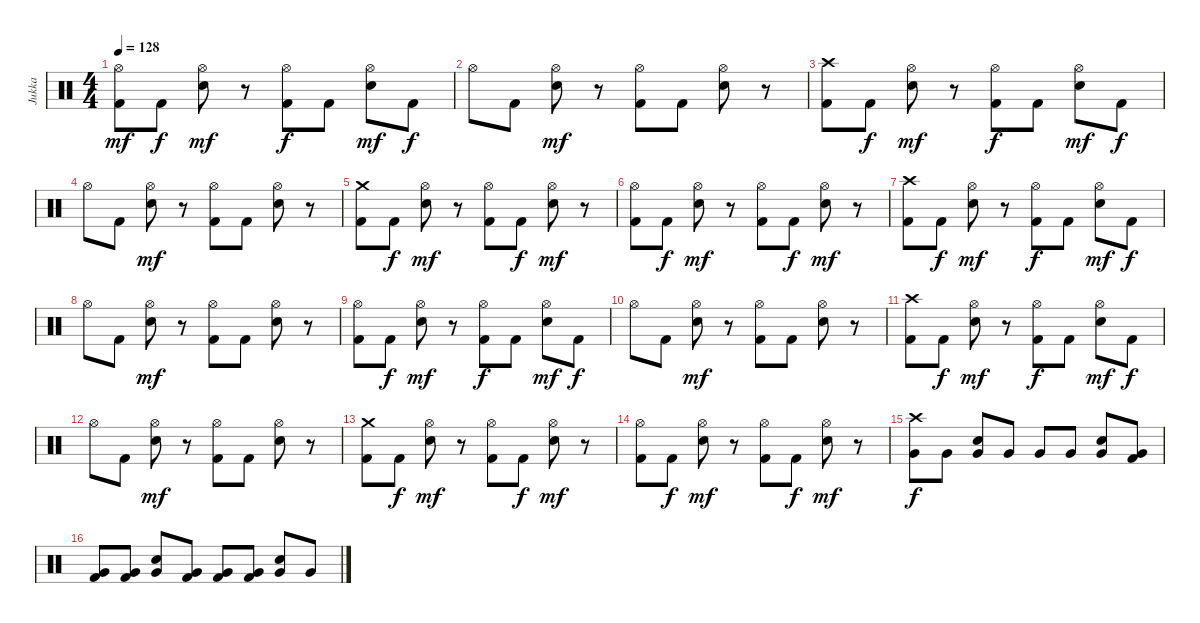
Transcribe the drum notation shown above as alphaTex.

\track ("Jukka" "Jukka") {instrument percussion}
\staff {score}
\articulation defaults
\ts (4 4)
\tempo 128
\clef neutral
\ks c
("Kick (hit) 2" "Hi-Hat (open)").8{dy mf} "Kick (hit) 2".8{dy f} ("Electric Snare (hit)" "Hi-Hat (open)").8{dy mf} r.8 ("Kick (hit) 2" "Hi-Hat (open)").8{dy f} "Kick (hit) 2".8 ("Electric Snare (hit)" "Hi-Hat (open)").8{dy mf} "Kick (hit) 2".8{dy f} |
"Hi-Hat (open)".8 "Kick (hit) 2".8 ("Electric Snare (hit)" "Hi-Hat (open)").8{dy mf} r.8 ("Kick (hit) 2" "Hi-Hat (open)").8 "Kick (hit) 2".8 ("Electric Snare (hit)" "Hi-Hat (open)").8 r.8 |
("Kick (hit) 2" "Crash high (hit)").8 "Kick (hit) 2".8{dy f} ("Electric Snare (hit)" "Hi-Hat (open)").8{dy mf} r.8 ("Kick (hit) 2" "Hi-Hat (open)").8{dy f} "Kick (hit) 2".8 ("Electric Snare (hit)" "Hi-Hat (open)").8{dy mf} "Kick (hit) 2".8{dy f} |
"Hi-Hat (open)".8 "Kick (hit) 2".8 ("Electric Snare (hit)" "Hi-Hat (open)").8{dy mf} r.8 ("Kick (hit) 2" "Hi-Hat (open)").8 "Kick (hit) 2".8 ("Electric Snare (hit)" "Hi-Hat (open)").8 r.8 |
("Kick (hit) 2" "Crash medium (hit)").8 "Kick (hit) 2".8{dy f} ("Electric Snare (hit)" "Hi-Hat (open)").8{dy mf} r.8 ("Kick (hit) 2" "Hi-Hat (open)").8 "Kick (hit) 2".8{dy f} ("Electric Snare (hit)" "Hi-Hat (open)").8{dy mf} r.8 |
("Kick (hit) 2" "Hi-Hat (open)").8 "Kick (hit) 2".8{dy f} ("Electric Snare (hit)" "Hi-Hat (open)").8{dy mf} r.8 ("Kick (hit) 2" "Hi-Hat (open)").8 "Kick (hit) 2".8{dy f} ("Electric Snare (hit)" "Hi-Hat (open)").8{dy mf} r.8 |
("Kick (hit) 2" "Crash high (hit)").8 "Kick (hit) 2".8{dy f} ("Electric Snare (hit)" "Hi-Hat (open)").8{dy mf} r.8 ("Kick (hit) 2" "Hi-Hat (open)").8{dy f} "Kick (hit) 2".8 ("Electric Snare (hit)" "Hi-Hat (open)").8{dy mf} "Kick (hit) 2".8{dy f} |
"Hi-Hat (open)".8 "Kick (hit) 2".8 ("Electric Snare (hit)" "Hi-Hat (open)").8{dy mf} r.8 ("Kick (hit) 2" "Hi-Hat (open)").8 "Kick (hit) 2".8 ("Electric Snare (hit)" "Hi-Hat (open)").8 r.8 |
("Kick (hit) 2" "Hi-Hat (open)").8 "Kick (hit) 2".8{dy f} ("Electric Snare (hit)" "Hi-Hat (open)").8{dy mf} r.8 ("Kick (hit) 2" "Hi-Hat (open)").8{dy f} "Kick (hit) 2".8 ("Electric Snare (hit)" "Hi-Hat (open)").8{dy mf} "Kick (hit) 2".8{dy f} |
"Hi-Hat (open)".8 "Kick (hit) 2".8 ("Electric Snare (hit)" "Hi-Hat (open)").8{dy mf} r.8 ("Kick (hit) 2" "Hi-Hat (open)").8 "Kick (hit) 2".8 ("Electric Snare (hit)" "Hi-Hat (open)").8 r.8 |
("Kick (hit) 2" "Crash high (hit)").8 "Kick (hit) 2".8{dy f} ("Electric Snare (hit)" "Hi-Hat (open)").8{dy mf} r.8 ("Kick (hit) 2" "Hi-Hat (open)").8{dy f} "Kick (hit) 2".8 ("Electric Snare (hit)" "Hi-Hat (open)").8{dy mf} "Kick (hit) 2".8{dy f} |
"Hi-Hat (open)".8 "Kick (hit) 2".8 ("Electric Snare (hit)" "Hi-Hat (open)").8{dy mf} r.8 ("Kick (hit) 2" "Hi-Hat (open)").8 "Kick (hit) 2".8 ("Electric Snare (hit)" "Hi-Hat (open)").8 r.8 |
("Kick (hit) 2" "Crash medium (hit)").8 "Kick (hit) 2".8{dy f} ("Electric Snare (hit)" "Hi-Hat (open)").8{dy mf} r.8 ("Kick (hit) 2" "Hi-Hat (open)").8 "Kick (hit) 2".8{dy f} ("Electric Snare (hit)" "Hi-Hat (open)").8{dy mf} r.8 |
("Kick (hit) 2" "Hi-Hat (open)").8 "Kick (hit) 2".8{dy f} ("Electric Snare (hit)" "Hi-Hat (open)").8{dy mf} r.8 ("Kick (hit) 2" "Hi-Hat (open)").8 "Kick (hit) 2".8{dy f} ("Electric Snare (hit)" "Hi-Hat (open)").8{dy mf} r.8 |
("Crash high (hit)" "Very Low Tom (hit)").8{dy f} "Very Low Tom (hit)".8 ("Electric Snare (hit)" "Very Low Tom (hit)").8 "Very Low Tom (hit)".8 "Very Low Tom (hit)".8 "Very Low Tom (hit)".8 ("Electric Snare (hit)" "Very Low Tom (hit)").8 ("Very Low Tom (hit)" "Kick (hit) 2").8 |
("Very Low Tom (hit)" "Kick (hit) 2").8 ("Very Low Tom (hit)" "Kick (hit) 2").8 ("Electric Snare (hit)" "Very Low Tom (hit)").8 ("Very Low Tom (hit)" "Kick (hit) 2").8 ("Very Low Tom (hit)" "Kick (hit) 2").8 ("Very Low Tom (hit)" "Kick (hit) 2").8 ("Electric Snare (hit)" "Very Low Tom (hit)").8 "Very Low Tom (hit)".8
